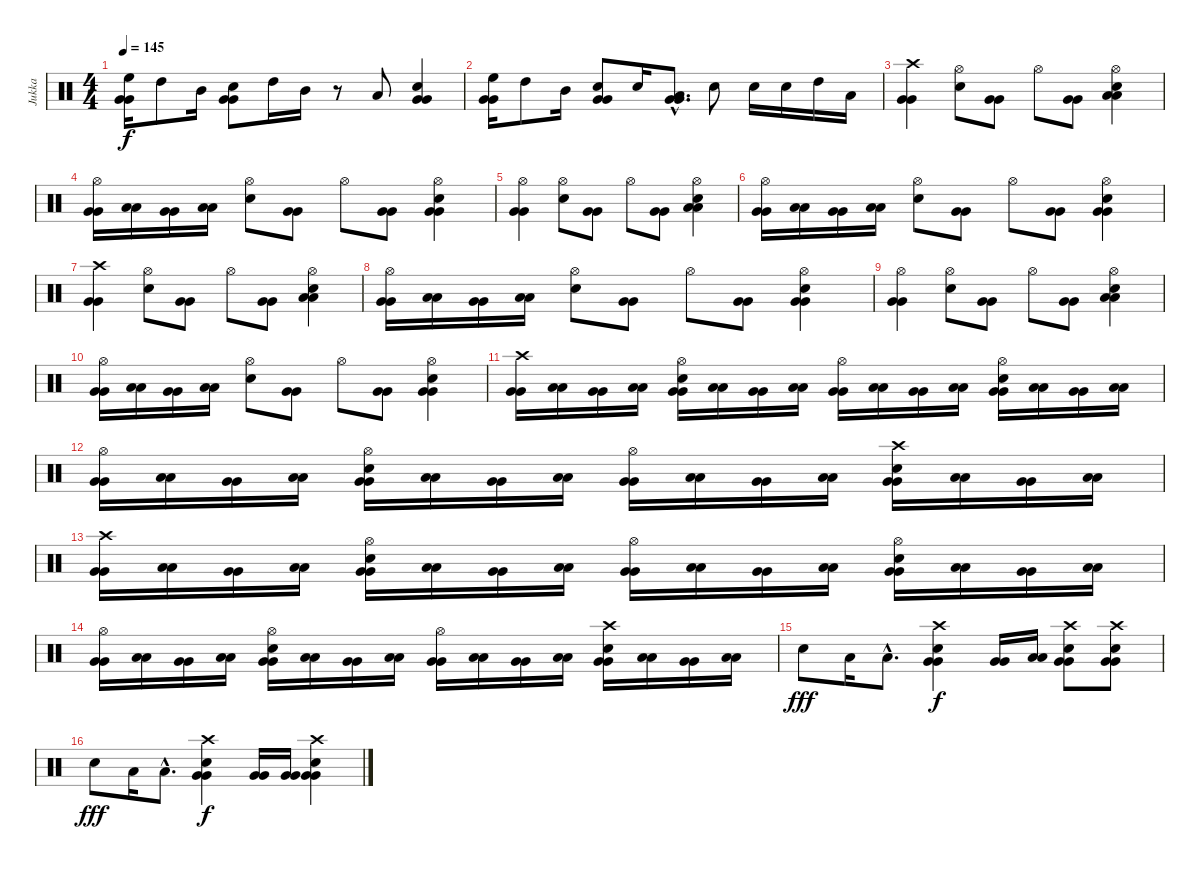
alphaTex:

\track ("Jukka" "Jukka") {instrument percussion}
\staff {score}
\articulation defaults
\ts (4 4)
\tempo 145
\clef neutral
\ks c
("High Floor Tom (hit)" "Very Low Tom (hit)" "Very Low Tom (hit)").16{dy f} "High Tom (hit)".8 "Mid Tom (hit)".16 ("Electric Snare (hit)" "Very Low Tom (hit)" "Very Low Tom (hit)").8 "High Tom (hit)".16 "Mid Tom (hit)".16 r.8 "Low Tom (hit)".8 ("Electric Snare (hit)" "Very Low Tom (hit)" "Very Low Tom (hit)").4 |
("High Floor Tom (hit)" "Very Low Tom (hit)" "Very Low Tom (hit)").16 "High Tom (hit)".8 "Mid Tom (hit)".16 ("Electric Snare (hit)" "Very Low Tom (hit)" "Very Low Tom (hit)").8 "Electric Snare (hit)".16 ("Low Tom (hit)"{hac} "Very Low Tom (hit)"{hac} "Very Low Tom (hit)"{hac}).8{d} "Electric Snare (hit)".8 "Electric Snare (hit)".16 "Electric Snare (hit)".16 "High Tom (hit)".16 "Low Tom (hit)".16 |
("Crash high (hit)" "Very Low Tom (hit)" "Very Low Tom (hit)").4 ("Hi-Hat (open)" "Electric Snare (hit)").8 ("Very Low Tom (hit)" "Very Low Tom (hit)").8 "Hi-Hat (open)".8 ("Very Low Tom (hit)" "Very Low Tom (hit)").8 ("Hi-Hat (open)" "Electric Snare (hit)" "Low Floor Tom (hit)" "Low Floor Tom (hit)").4 |
("Hi-Hat (open)" "Very Low Tom (hit)" "Very Low Tom (hit)").16 ("Low Floor Tom (hit)" "Low Floor Tom (hit)").16 ("Very Low Tom (hit)" "Very Low Tom (hit)").16 ("Low Floor Tom (hit)" "Low Floor Tom (hit)").16 ("Hi-Hat (open)" "Electric Snare (hit)").8 ("Very Low Tom (hit)" "Very Low Tom (hit)").8 "Hi-Hat (open)".8 ("Very Low Tom (hit)" "Very Low Tom (hit)").8 ("Hi-Hat (open)" "Electric Snare (hit)" "Very Low Tom (hit)" "Very Low Tom (hit)").4 |
("Hi-Hat (open)" "Very Low Tom (hit)" "Very Low Tom (hit)").4 ("Hi-Hat (open)" "Electric Snare (hit)").8 ("Very Low Tom (hit)" "Very Low Tom (hit)").8 "Hi-Hat (open)".8 ("Very Low Tom (hit)" "Very Low Tom (hit)").8 ("Hi-Hat (open)" "Electric Snare (hit)" "Low Floor Tom (hit)" "Low Floor Tom (hit)").4 |
("Hi-Hat (open)" "Very Low Tom (hit)" "Very Low Tom (hit)").16 ("Low Floor Tom (hit)" "Low Floor Tom (hit)").16 ("Very Low Tom (hit)" "Very Low Tom (hit)").16 ("Low Floor Tom (hit)" "Low Floor Tom (hit)").16 ("Hi-Hat (open)" "Electric Snare (hit)").8 ("Very Low Tom (hit)" "Very Low Tom (hit)").8 "Hi-Hat (open)".8 ("Very Low Tom (hit)" "Very Low Tom (hit)").8 ("Hi-Hat (open)" "Electric Snare (hit)" "Very Low Tom (hit)" "Very Low Tom (hit)").4 |
("Crash high (hit)" "Very Low Tom (hit)" "Very Low Tom (hit)").4 ("Hi-Hat (open)" "Electric Snare (hit)").8 ("Very Low Tom (hit)" "Very Low Tom (hit)").8 "Hi-Hat (open)".8 ("Very Low Tom (hit)" "Very Low Tom (hit)").8 ("Hi-Hat (open)" "Electric Snare (hit)" "Low Floor Tom (hit)" "Low Floor Tom (hit)").4 |
("Hi-Hat (open)" "Very Low Tom (hit)" "Very Low Tom (hit)").16 ("Low Floor Tom (hit)" "Low Floor Tom (hit)").16 ("Very Low Tom (hit)" "Very Low Tom (hit)").16 ("Low Floor Tom (hit)" "Low Floor Tom (hit)").16 ("Hi-Hat (open)" "Electric Snare (hit)").8 ("Very Low Tom (hit)" "Very Low Tom (hit)").8 "Hi-Hat (open)".8 ("Very Low Tom (hit)" "Very Low Tom (hit)").8 ("Hi-Hat (open)" "Electric Snare (hit)" "Very Low Tom (hit)" "Very Low Tom (hit)").4 |
("Hi-Hat (open)" "Very Low Tom (hit)" "Very Low Tom (hit)").4 ("Hi-Hat (open)" "Electric Snare (hit)").8 ("Very Low Tom (hit)" "Very Low Tom (hit)").8 "Hi-Hat (open)".8 ("Very Low Tom (hit)" "Very Low Tom (hit)").8 ("Hi-Hat (open)" "Electric Snare (hit)" "Low Floor Tom (hit)" "Low Floor Tom (hit)").4 |
("Hi-Hat (open)" "Very Low Tom (hit)" "Very Low Tom (hit)").16 ("Low Floor Tom (hit)" "Low Floor Tom (hit)").16 ("Very Low Tom (hit)" "Very Low Tom (hit)").16 ("Low Floor Tom (hit)" "Low Floor Tom (hit)").16 ("Hi-Hat (open)" "Electric Snare (hit)").8 ("Very Low Tom (hit)" "Very Low Tom (hit)").8 "Hi-Hat (open)".8 ("Very Low Tom (hit)" "Very Low Tom (hit)").8 ("Hi-Hat (open)" "Electric Snare (hit)" "Very Low Tom (hit)" "Very Low Tom (hit)").4 |
("Crash high (hit)" "Very Low Tom (hit)" "Very Low Tom (hit)").16 ("Low Floor Tom (hit)" "Low Floor Tom (hit)").16 ("Very Low Tom (hit)" "Very Low Tom (hit)").16 ("Low Floor Tom (hit)" "Low Floor Tom (hit)").16 ("Hi-Hat (open)" "Electric Snare (hit)" "Very Low Tom (hit)" "Very Low Tom (hit)").16 ("Low Floor Tom (hit)" "Low Floor Tom (hit)").16 ("Very Low Tom (hit)" "Very Low Tom (hit)").16 ("Low Floor Tom (hit)" "Low Floor Tom (hit)").16 ("Hi-Hat (open)" "Very Low Tom (hit)" "Very Low Tom (hit)").16 ("Low Floor Tom (hit)" "Low Floor Tom (hit)").16 ("Very Low Tom (hit)" "Very Low Tom (hit)").16 ("Low Floor Tom (hit)" "Low Floor Tom (hit)").16 ("Hi-Hat (open)" "Electric Snare (hit)" "Very Low Tom (hit)" "Very Low Tom (hit)").16 ("Low Floor Tom (hit)" "Low Floor Tom (hit)").16 ("Very Low Tom (hit)" "Very Low Tom (hit)").16 ("Low Floor Tom (hit)" "Low Floor Tom (hit)").16 |
("Hi-Hat (open)" "Very Low Tom (hit)" "Very Low Tom (hit)").16 ("Low Floor Tom (hit)" "Low Floor Tom (hit)").16 ("Very Low Tom (hit)" "Very Low Tom (hit)").16 ("Low Floor Tom (hit)" "Low Floor Tom (hit)").16 ("Hi-Hat (open)" "Electric Snare (hit)" "Very Low Tom (hit)" "Very Low Tom (hit)").16 ("Low Floor Tom (hit)" "Low Floor Tom (hit)").16 ("Very Low Tom (hit)" "Very Low Tom (hit)").16 ("Low Floor Tom (hit)" "Low Floor Tom (hit)").16 ("Hi-Hat (open)" "Very Low Tom (hit)" "Very Low Tom (hit)").16 ("Low Floor Tom (hit)" "Low Floor Tom (hit)").16 ("Very Low Tom (hit)" "Very Low Tom (hit)").16 ("Low Floor Tom (hit)" "Low Floor Tom (hit)").16 ("Crash high (hit)" "Electric Snare (hit)" "Very Low Tom (hit)" "Very Low Tom (hit)").16 ("Low Floor Tom (hit)" "Low Floor Tom (hit)").16 ("Very Low Tom (hit)" "Very Low Tom (hit)").16 ("Low Floor Tom (hit)" "Low Floor Tom (hit)").16 |
("Crash high (hit)" "Very Low Tom (hit)" "Very Low Tom (hit)").16 ("Low Floor Tom (hit)" "Low Floor Tom (hit)").16 ("Very Low Tom (hit)" "Very Low Tom (hit)").16 ("Low Floor Tom (hit)" "Low Floor Tom (hit)").16 ("Hi-Hat (open)" "Electric Snare (hit)" "Very Low Tom (hit)" "Very Low Tom (hit)").16 ("Low Floor Tom (hit)" "Low Floor Tom (hit)").16 ("Very Low Tom (hit)" "Very Low Tom (hit)").16 ("Low Floor Tom (hit)" "Low Floor Tom (hit)").16 ("Hi-Hat (open)" "Very Low Tom (hit)" "Very Low Tom (hit)").16 ("Low Floor Tom (hit)" "Low Floor Tom (hit)").16 ("Very Low Tom (hit)" "Very Low Tom (hit)").16 ("Low Floor Tom (hit)" "Low Floor Tom (hit)").16 ("Hi-Hat (open)" "Electric Snare (hit)" "Very Low Tom (hit)" "Very Low Tom (hit)").16 ("Low Floor Tom (hit)" "Low Floor Tom (hit)").16 ("Very Low Tom (hit)" "Very Low Tom (hit)").16 ("Low Floor Tom (hit)" "Low Floor Tom (hit)").16 |
("Hi-Hat (open)" "Very Low Tom (hit)" "Very Low Tom (hit)").16 ("Low Floor Tom (hit)" "Low Floor Tom (hit)").16 ("Very Low Tom (hit)" "Very Low Tom (hit)").16 ("Low Floor Tom (hit)" "Low Floor Tom (hit)").16 ("Hi-Hat (open)" "Electric Snare (hit)" "Very Low Tom (hit)" "Very Low Tom (hit)").16 ("Low Floor Tom (hit)" "Low Floor Tom (hit)").16 ("Very Low Tom (hit)" "Very Low Tom (hit)").16 ("Low Floor Tom (hit)" "Low Floor Tom (hit)").16 ("Hi-Hat (open)" "Very Low Tom (hit)" "Very Low Tom (hit)").16 ("Low Floor Tom (hit)" "Low Floor Tom (hit)").16 ("Very Low Tom (hit)" "Very Low Tom (hit)").16 ("Low Floor Tom (hit)" "Low Floor Tom (hit)").16 ("Crash high (hit)" "Electric Snare (hit)" "Very Low Tom (hit)" "Very Low Tom (hit)").16 ("Low Floor Tom (hit)" "Low Floor Tom (hit)").16 ("Very Low Tom (hit)" "Very Low Tom (hit)").16 ("Low Floor Tom (hit)" "Low Floor Tom (hit)").16 |
"Electric Snare (hit)".8{dy fff} "Low Tom (hit)".16 "Low Tom (hit)"{hac}.8{d} ("Crash high (hit)" "Electric Snare (hit)" "Very Low Tom (hit)" "Very Low Tom (hit)").4{dy f} ("Very Low Tom (hit)" "Very Low Tom (hit)").16 ("Low Floor Tom (hit)" "Low Floor Tom (hit)").16 ("Crash high (hit)" "Electric Snare (hit)" "Very Low Tom (hit)" "Very Low Tom (hit)").8 ("Crash high (hit)" "Electric Snare (hit)" "Very Low Tom (hit)" "Very Low Tom (hit)").8 |
"Electric Snare (hit)".8{dy fff} "Low Tom (hit)".16 "Low Tom (hit)"{hac}.8{d} ("Crash high (hit)" "Electric Snare (hit)" "Very Low Tom (hit)" "Very Low Tom (hit)").4{dy f} ("Very Low Tom (hit)" "Very Low Tom (hit)").16 ("Very Low Tom (hit)" "Very Low Tom (hit)").16 ("Crash high (hit)" "Electric Snare (hit)" "Very Low Tom (hit)" "Very Low Tom (hit)").4
